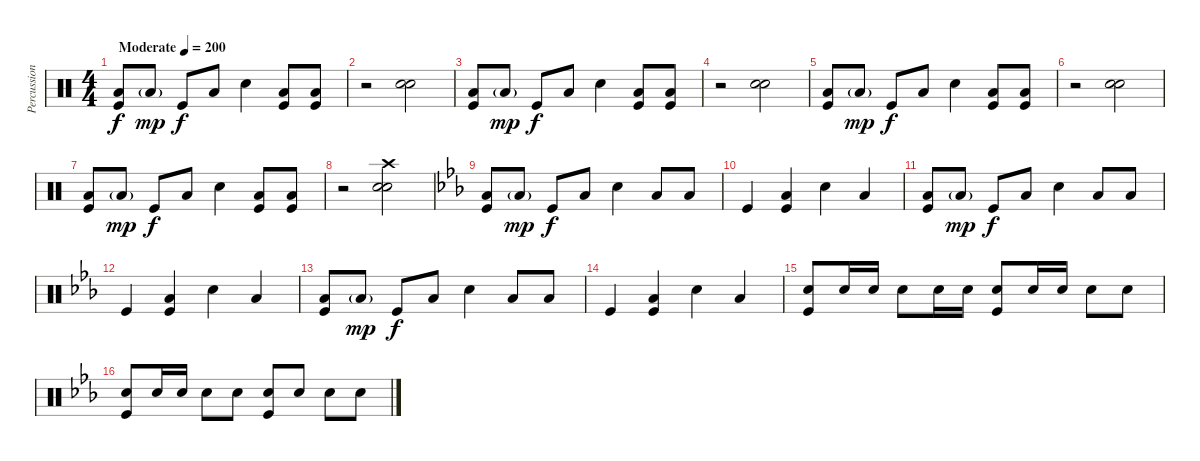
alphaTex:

\track ("Percussion" "Percussion") {instrument percussion}
\staff {score}
\articulation defaults
\ts (4 4)
\tempo (200 "Moderate")
\clef neutral
\ks c
("Low Floor Tom (hit)" "Kick (hit)").8{dy f} "Low Floor Tom (hit)"{g}.8{dy mp} "Kick (hit)".8{dy f} "Low Floor Tom (hit)".8 "Snare (hit) 2".4 ("Low Floor Tom (hit)" "Kick (hit)").8 ("Low Floor Tom (hit)" "Kick (hit)").8 |
r.2 ("Snare (hit) 2" "Electric Snare (hit)").2 |
("Low Floor Tom (hit)" "Kick (hit)").8 "Low Floor Tom (hit)"{g}.8{dy mp} "Kick (hit)".8{dy f} "Low Floor Tom (hit)".8 "Snare (hit) 2".4 ("Low Floor Tom (hit)" "Kick (hit)").8 ("Low Floor Tom (hit)" "Kick (hit)").8 |
r.2 ("Snare (hit) 2" "Electric Snare (hit)").2 |
("Low Floor Tom (hit)" "Kick (hit)").8 "Low Floor Tom (hit)"{g}.8{dy mp} "Kick (hit)".8{dy f} "Low Floor Tom (hit)".8 "Snare (hit) 2".4 ("Low Floor Tom (hit)" "Kick (hit)").8 ("Low Floor Tom (hit)" "Kick (hit)").8 |
r.2 ("Snare (hit) 2" "Electric Snare (hit)").2 |
("Low Floor Tom (hit)" "Kick (hit)").8 "Low Floor Tom (hit)"{g}.8{dy mp} "Kick (hit)".8{dy f} "Low Floor Tom (hit)".8 "Snare (hit) 2".4 ("Low Floor Tom (hit)" "Kick (hit)").8 ("Low Floor Tom (hit)" "Kick (hit)").8 |
r.2 ("Crash high (hit)" "Snare (hit) 2" "Electric Snare (hit)").2 |
\ks eb
("Low Floor Tom (hit)" "Kick (hit)").8 "Low Floor Tom (hit)"{g}.8{dy mp} "Kick (hit)".8{dy f} "Low Floor Tom (hit)".8 "Snare (hit) 2".4 "Low Floor Tom (hit)".8 "Low Floor Tom (hit)".8 |
"Kick (hit)".4 ("Low Floor Tom (hit)" "Kick (hit)").4 "Snare (hit) 2".4 "Low Floor Tom (hit)".4 |
("Low Floor Tom (hit)" "Kick (hit)").8 "Low Floor Tom (hit)"{g}.8{dy mp} "Kick (hit)".8{dy f} "Low Floor Tom (hit)".8 "Snare (hit) 2".4 "Low Floor Tom (hit)".8 "Low Floor Tom (hit)".8 |
"Kick (hit)".4 ("Low Floor Tom (hit)" "Kick (hit)").4 "Snare (hit) 2".4 "Low Floor Tom (hit)".4 |
("Low Floor Tom (hit)" "Kick (hit)").8 "Low Floor Tom (hit)"{g}.8{dy mp} "Kick (hit)".8{dy f} "Low Floor Tom (hit)".8 "Snare (hit) 2".4 "Low Floor Tom (hit)".8 "Low Floor Tom (hit)".8 |
"Kick (hit)".4 ("Low Floor Tom (hit)" "Kick (hit)").4 "Snare (hit) 2".4 "Low Floor Tom (hit)".4 |
("Electric Snare (hit)" "Kick (hit)").8 "Electric Snare (hit)".16 "Electric Snare (hit)".16 "Electric Snare (hit)".8 "Electric Snare (hit)".16 "Electric Snare (hit)".16 ("Electric Snare (hit)" "Kick (hit)").8 "Electric Snare (hit)".16 "Electric Snare (hit)".16 "Electric Snare (hit)".8 "Electric Snare (hit)".8 |
("Electric Snare (hit)" "Kick (hit)").8 "Electric Snare (hit)".16 "Electric Snare (hit)".16 "Electric Snare (hit)".8 "Electric Snare (hit)".8 ("Electric Snare (hit)" "Kick (hit)").8 "Electric Snare (hit)".8 "Electric Snare (hit)".8 "Electric Snare (hit)".8
